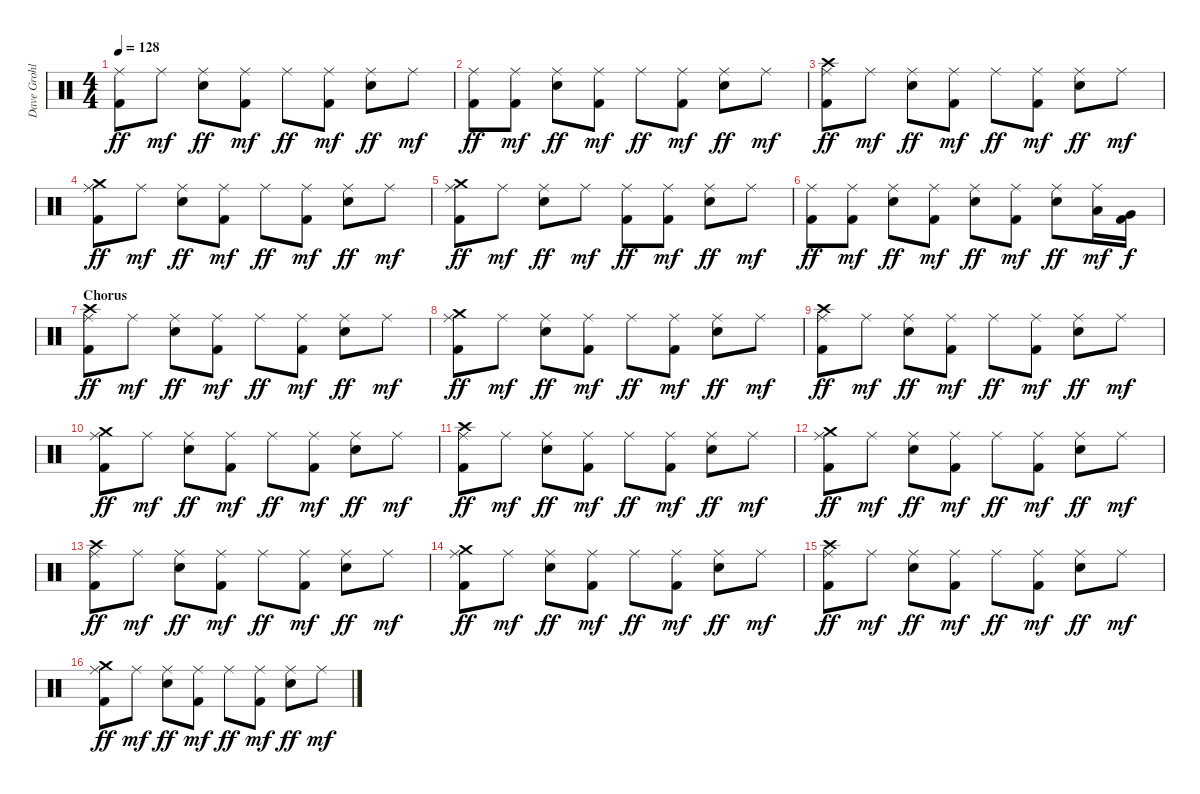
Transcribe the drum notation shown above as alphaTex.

\track ("Dave Grohl" "Dave Grohl") {instrument percussion}
\staff {score}
\articulation defaults
\ts (4 4)
\tempo 128
\clef neutral
\ks c
("Ride (middle)" "Kick (hit) 2").8{dy ff} "Ride (middle)".8{dy mf} ("Ride (middle)" "Snare (hit) 2").8{dy ff} ("Ride (middle)" "Kick (hit) 2").8{dy mf} "Ride (middle)".8{dy ff} ("Ride (middle)" "Kick (hit) 2").8{dy mf} ("Ride (middle)" "Snare (hit) 2").8{dy ff} "Ride (middle)".8{dy mf} |
("Ride (middle)" "Kick (hit) 2").8{dy ff} ("Ride (middle)" "Kick (hit) 2").8{dy mf} ("Ride (middle)" "Snare (hit) 2").8{dy ff} ("Ride (middle)" "Kick (hit) 2").8{dy mf} "Ride (middle)".8{dy ff} ("Ride (middle)" "Kick (hit) 2").8{dy mf} ("Ride (middle)" "Snare (hit) 2").8{dy ff} "Ride (middle)".8{dy mf} |
("Crash high (hit)" "Ride (middle)" "Kick (hit) 2").8{dy ff} "Ride (middle)".8{dy mf} ("Ride (middle)" "Snare (hit) 2").8{dy ff} ("Ride (middle)" "Kick (hit) 2").8{dy mf} "Ride (middle)".8{dy ff} ("Ride (middle)" "Kick (hit) 2").8{dy mf} ("Ride (middle)" "Snare (hit) 2").8{dy ff} "Ride (middle)".8{dy mf} |
("Crash medium (hit)" "Ride (middle)" "Kick (hit) 2").8{dy ff} "Ride (middle)".8{dy mf} ("Ride (middle)" "Snare (hit) 2").8{dy ff} ("Ride (middle)" "Kick (hit) 2").8{dy mf} "Ride (middle)".8{dy ff} ("Ride (middle)" "Kick (hit) 2").8{dy mf} ("Ride (middle)" "Snare (hit) 2").8{dy ff} "Ride (middle)".8{dy mf} |
("Crash medium (hit)" "Ride (middle)" "Kick (hit) 2").8{dy ff} "Ride (middle)".8{dy mf} ("Ride (middle)" "Snare (hit) 2").8{dy ff} "Ride (middle)".8{dy mf} ("Ride (middle)" "Kick (hit) 2").8{dy ff} ("Ride (middle)" "Kick (hit) 2").8{dy mf} ("Ride (middle)" "Snare (hit) 2").8{dy ff} "Ride (middle)".8{dy mf} |
("Ride (middle)" "Kick (hit) 2").8{dy ff} ("Ride (middle)" "Kick (hit) 2").8{dy mf} ("Ride (middle)" "Snare (hit) 2").8{dy ff} ("Ride (middle)" "Kick (hit) 2").8{dy mf} ("Ride (middle)" "Snare (hit) 2").8{dy ff} ("Ride (middle)" "Kick (hit) 2").8{dy mf} ("Ride (middle)" "Snare (hit) 2").8{dy ff} ("Ride (middle)" "Low Tom (hit)").16{dy mf} ("Very Low Tom (hit)" "Kick (hit) 2").16{dy f} |
\section ("" "Chorus")
("Crash high (hit)" "Ride (middle)" "Kick (hit) 2").8{dy ff} "Ride (middle)".8{dy mf} ("Ride (middle)" "Snare (hit) 2").8{dy ff} ("Ride (middle)" "Kick (hit) 2").8{dy mf} "Ride (middle)".8{dy ff} ("Ride (middle)" "Kick (hit) 2").8{dy mf} ("Ride (middle)" "Snare (hit) 2").8{dy ff} "Ride (middle)".8{dy mf} |
("Crash medium (hit)" "Ride (middle)" "Kick (hit) 2").8{dy ff} "Ride (middle)".8{dy mf} ("Ride (middle)" "Snare (hit) 2").8{dy ff} ("Ride (middle)" "Kick (hit) 2").8{dy mf} "Ride (middle)".8{dy ff} ("Ride (middle)" "Kick (hit) 2").8{dy mf} ("Ride (middle)" "Snare (hit) 2").8{dy ff} "Ride (middle)".8{dy mf} |
("Crash high (hit)" "Ride (middle)" "Kick (hit) 2").8{dy ff} "Ride (middle)".8{dy mf} ("Ride (middle)" "Snare (hit) 2").8{dy ff} ("Ride (middle)" "Kick (hit) 2").8{dy mf} "Ride (middle)".8{dy ff} ("Ride (middle)" "Kick (hit) 2").8{dy mf} ("Ride (middle)" "Snare (hit) 2").8{dy ff} "Ride (middle)".8{dy mf} |
("Crash medium (hit)" "Ride (middle)" "Kick (hit) 2").8{dy ff} "Ride (middle)".8{dy mf} ("Ride (middle)" "Snare (hit) 2").8{dy ff} ("Ride (middle)" "Kick (hit) 2").8{dy mf} "Ride (middle)".8{dy ff} ("Ride (middle)" "Kick (hit) 2").8{dy mf} ("Ride (middle)" "Snare (hit) 2").8{dy ff} "Ride (middle)".8{dy mf} |
("Crash high (hit)" "Ride (middle)" "Kick (hit) 2").8{dy ff} "Ride (middle)".8{dy mf} ("Ride (middle)" "Snare (hit) 2").8{dy ff} ("Ride (middle)" "Kick (hit) 2").8{dy mf} "Ride (middle)".8{dy ff} ("Ride (middle)" "Kick (hit) 2").8{dy mf} ("Ride (middle)" "Snare (hit) 2").8{dy ff} "Ride (middle)".8{dy mf} |
("Crash medium (hit)" "Ride (middle)" "Kick (hit) 2").8{dy ff} "Ride (middle)".8{dy mf} ("Ride (middle)" "Snare (hit) 2").8{dy ff} ("Ride (middle)" "Kick (hit) 2").8{dy mf} "Ride (middle)".8{dy ff} ("Ride (middle)" "Kick (hit) 2").8{dy mf} ("Ride (middle)" "Snare (hit) 2").8{dy ff} "Ride (middle)".8{dy mf} |
("Crash high (hit)" "Ride (middle)" "Kick (hit) 2").8{dy ff} "Ride (middle)".8{dy mf} ("Ride (middle)" "Snare (hit) 2").8{dy ff} ("Ride (middle)" "Kick (hit) 2").8{dy mf} "Ride (middle)".8{dy ff} ("Ride (middle)" "Kick (hit) 2").8{dy mf} ("Ride (middle)" "Snare (hit) 2").8{dy ff} "Ride (middle)".8{dy mf} |
("Crash medium (hit)" "Ride (middle)" "Kick (hit) 2").8{dy ff} "Ride (middle)".8{dy mf} ("Ride (middle)" "Snare (hit) 2").8{dy ff} ("Ride (middle)" "Kick (hit) 2").8{dy mf} "Ride (middle)".8{dy ff} ("Ride (middle)" "Kick (hit) 2").8{dy mf} ("Ride (middle)" "Snare (hit) 2").8{dy ff} "Ride (middle)".8{dy mf} |
("Crash high (hit)" "Ride (middle)" "Kick (hit) 2").8{dy ff} "Ride (middle)".8{dy mf} ("Ride (middle)" "Snare (hit) 2").8{dy ff} ("Ride (middle)" "Kick (hit) 2").8{dy mf} "Ride (middle)".8{dy ff} ("Ride (middle)" "Kick (hit) 2").8{dy mf} ("Ride (middle)" "Snare (hit) 2").8{dy ff} "Ride (middle)".8{dy mf} |
("Crash medium (hit)" "Ride (middle)" "Kick (hit) 2").8{dy ff} "Ride (middle)".8{dy mf} ("Ride (middle)" "Snare (hit) 2").8{dy ff} ("Ride (middle)" "Kick (hit) 2").8{dy mf} "Ride (middle)".8{dy ff} ("Ride (middle)" "Kick (hit) 2").8{dy mf} ("Ride (middle)" "Snare (hit) 2").8{dy ff} "Ride (middle)".8{dy mf}
